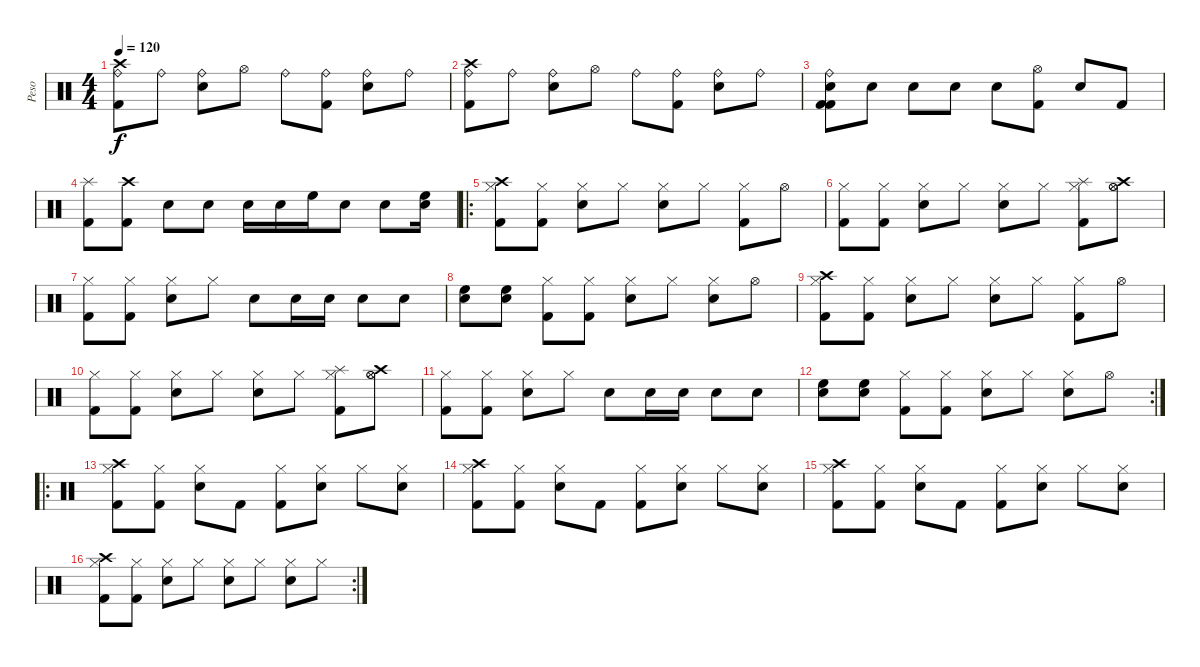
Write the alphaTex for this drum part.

\track ("Peso" "Peso") {instrument percussion}
\staff {score}
\articulation defaults
\ts (4 4)
\tempo 120
\clef neutral
\ks c
("Crash high (hit)" "Ride (bell)" "Kick (hit) 2").8{dy f} "Ride (bell)".8 ("Ride (bell)" "Snare (hit) 2").8 "Hi-Hat (open)".8 "Ride (bell)".8 ("Ride (bell)" "Kick (hit) 2").8 ("Ride (bell)" "Snare (hit) 2").8 "Ride (bell)".8 |
("Crash high (hit)" "Ride (bell)" "Kick (hit) 2").8 "Ride (bell)".8 ("Ride (bell)" "Snare (hit) 2").8 "Hi-Hat (open)".8 "Ride (bell)".8 ("Ride (bell)" "Kick (hit) 2").8 ("Ride (bell)" "Snare (hit) 2").8 "Ride (bell)".8 |
("Ride (bell)" "Snare (hit) 2" "Kick (hit) 2" "Kick (hit) 2").8 "Snare (hit)"{x}.8 "Snare (hit)"{x}.8 "Snare (hit)"{x}.8 "Snare (hit)"{x}.8 ("Hi-Hat (open)" "Kick (hit) 2").8 "Snare (hit) 2".8 "Kick (hit) 2".8 |
("Splash (hit)" "Kick (hit) 2").8 ("Crash high (hit)" "Kick (hit) 2").8 "Snare (hit) 2".8 "Snare (hit) 2".8 "Snare (hit) 2".16 "Snare (hit) 2".16 "High Floor Tom (hit)".16 "Snare (hit) 2".8 "Snare (hit) 2".8 ("High Floor Tom (hit)" "Snare (hit) 2").16 |
\ro
("Crash high (hit)" "Hi-Hat (closed)" "Kick (hit) 2").8 ("Hi-Hat (closed)" "Kick (hit) 2").8 ("Hi-Hat (closed)" "Snare (hit) 2").8 "Hi-Hat (closed)".8 ("Hi-Hat (closed)" "Snare (hit) 2").8 "Hi-Hat (closed)".8 ("Hi-Hat (closed)" "Kick (hit) 2").8 "Hi-Hat (open)".8 |
("Hi-Hat (closed)" "Kick (hit) 2").8 ("Hi-Hat (closed)" "Kick (hit) 2").8 ("Hi-Hat (closed)" "Snare (hit) 2").8 "Hi-Hat (closed)".8 ("Hi-Hat (closed)" "Snare (hit) 2").8 "Hi-Hat (closed)".8 ("Splash (hit)" "Hi-Hat (closed)" "Kick (hit) 2").8 ("Crash high (hit)" "Hi-Hat (open)" "Hi-Hat (open)").8 |
("Hi-Hat (closed)" "Kick (hit) 2").8 ("Hi-Hat (closed)" "Kick (hit) 2").8 ("Hi-Hat (closed)" "Snare (hit) 2").8 "Hi-Hat (closed)".8 "Snare (hit) 2".8 "Snare (hit) 2".16 "Snare (hit) 2".16 "Snare (hit) 2".8 "Snare (hit) 2".8 |
("High Floor Tom (hit)" "Snare (hit) 2").8 ("High Floor Tom (hit)" "Snare (hit) 2").8 ("Hi-Hat (closed)" "Kick (hit) 2").8 ("Hi-Hat (closed)" "Kick (hit) 2").8 ("Hi-Hat (closed)" "Snare (hit) 2").8 "Hi-Hat (closed)".8 ("Hi-Hat (closed)" "Snare (hit) 2").8 "Hi-Hat (open)".8 |
("Crash high (hit)" "Hi-Hat (closed)" "Kick (hit) 2").8 ("Hi-Hat (closed)" "Kick (hit) 2").8 ("Hi-Hat (closed)" "Snare (hit) 2").8 "Hi-Hat (closed)".8 ("Hi-Hat (closed)" "Snare (hit) 2").8 "Hi-Hat (closed)".8 ("Hi-Hat (closed)" "Kick (hit) 2").8 "Hi-Hat (open)".8 |
("Hi-Hat (closed)" "Kick (hit) 2").8 ("Hi-Hat (closed)" "Kick (hit) 2").8 ("Hi-Hat (closed)" "Snare (hit) 2").8 "Hi-Hat (closed)".8 ("Hi-Hat (closed)" "Snare (hit) 2").8 "Hi-Hat (closed)".8 ("Splash (hit)" "Hi-Hat (closed)" "Kick (hit) 2").8 ("Crash high (hit)" "Hi-Hat (open)" "Hi-Hat (open)").8 |
("Hi-Hat (closed)" "Kick (hit) 2").8 ("Hi-Hat (closed)" "Kick (hit) 2").8 ("Hi-Hat (closed)" "Snare (hit) 2").8 "Hi-Hat (closed)".8 "Snare (hit) 2".8 "Snare (hit) 2".16 "Snare (hit) 2".16 "Snare (hit) 2".8 "Snare (hit) 2".8 |
\rc 2
("High Floor Tom (hit)" "Snare (hit) 2").8 ("High Floor Tom (hit)" "Snare (hit) 2").8 ("Hi-Hat (closed)" "Kick (hit) 2").8 ("Hi-Hat (closed)" "Kick (hit) 2").8 ("Hi-Hat (closed)" "Snare (hit) 2").8 "Hi-Hat (closed)".8 ("Hi-Hat (closed)" "Snare (hit) 2").8 "Hi-Hat (open)".8 |
\ro
("Crash high (hit)" "Hi-Hat (closed)" "Kick (hit) 2").8 ("Hi-Hat (closed)" "Kick (hit) 2").8 ("Hi-Hat (closed)" "Snare (hit) 2").8 "Kick (hit) 2".8 ("Hi-Hat (closed)" "Kick (hit) 2").8 ("Hi-Hat (closed)" "Snare (hit) 2").8 "Hi-Hat (closed)".8 ("Hi-Hat (closed)" "Snare (hit) 2").8 |
("Crash high (hit)" "Hi-Hat (closed)" "Kick (hit) 2").8 ("Hi-Hat (closed)" "Kick (hit) 2").8 ("Hi-Hat (closed)" "Snare (hit) 2").8 "Kick (hit) 2".8 ("Hi-Hat (closed)" "Kick (hit) 2").8 ("Hi-Hat (closed)" "Snare (hit) 2").8 "Hi-Hat (closed)".8 ("Hi-Hat (closed)" "Snare (hit) 2").8 |
("Crash high (hit)" "Hi-Hat (closed)" "Kick (hit) 2").8 ("Hi-Hat (closed)" "Kick (hit) 2").8 ("Hi-Hat (closed)" "Snare (hit) 2").8 "Kick (hit) 2".8 ("Hi-Hat (closed)" "Kick (hit) 2").8 ("Hi-Hat (closed)" "Snare (hit) 2").8 "Hi-Hat (closed)".8 ("Hi-Hat (closed)" "Snare (hit) 2").8 |
\rc 2
("Crash high (hit)" "Hi-Hat (closed)" "Kick (hit) 2").8 ("Hi-Hat (closed)" "Kick (hit) 2").8 ("Hi-Hat (closed)" "Snare (hit) 2").8 "Hi-Hat (closed)".8 ("Hi-Hat (closed)" "Snare (hit) 2").8 "Hi-Hat (closed)".8 ("Hi-Hat (closed)" "Snare (hit) 2").8 "Hi-Hat (closed)".8
